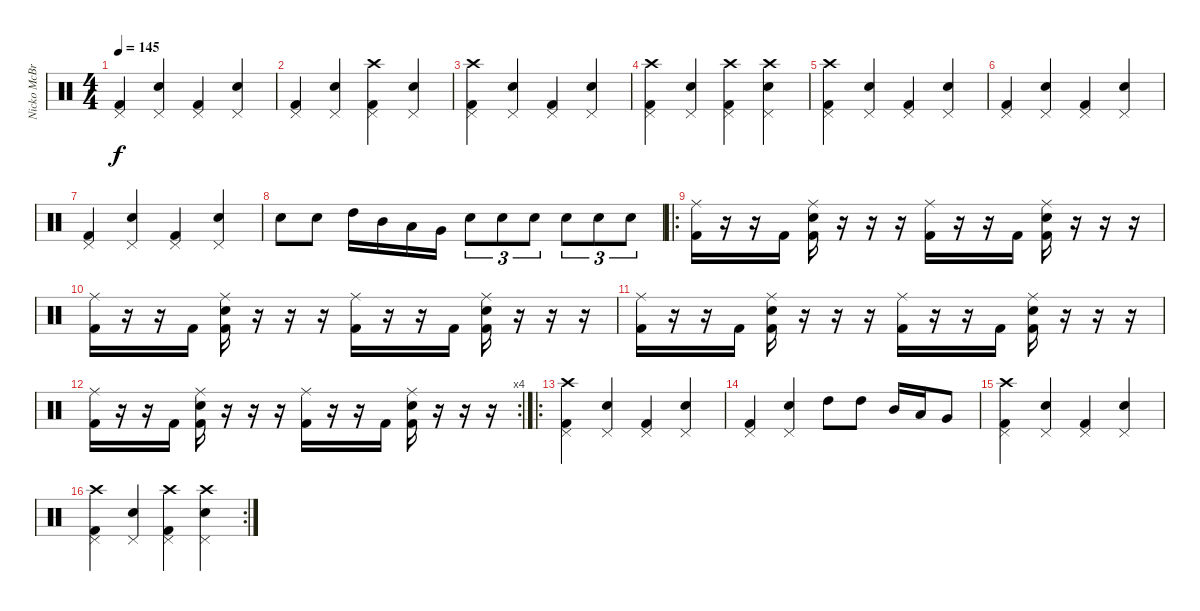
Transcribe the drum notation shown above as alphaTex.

\track ("Nicko McBrain" "Nicko McBr") {instrument percussion}
\staff {score}
\articulation defaults
\ts (4 4)
\tempo 145
\clef neutral
\ks c
("Pedal Hi-Hat (hit)" "Kick (hit) 2").4{dy f} ("Pedal Hi-Hat (hit)" "Snare (hit) 2").4 ("Pedal Hi-Hat (hit)" "Kick (hit) 2").4 ("Pedal Hi-Hat (hit)" "Snare (hit) 2").4 |
("Pedal Hi-Hat (hit)" "Kick (hit) 2").4 ("Pedal Hi-Hat (hit)" "Snare (hit) 2").4 ("Pedal Hi-Hat (hit)" "Kick (hit) 2" "Crash high (hit)").4 ("Pedal Hi-Hat (hit)" "Snare (hit) 2").4 |
("Pedal Hi-Hat (hit)" "Kick (hit) 2" "Crash high (hit)").4 ("Pedal Hi-Hat (hit)" "Snare (hit) 2").4 ("Pedal Hi-Hat (hit)" "Kick (hit) 2").4 ("Pedal Hi-Hat (hit)" "Snare (hit) 2").4 |
("Pedal Hi-Hat (hit)" "Kick (hit) 2" "Crash high (hit)").4 ("Pedal Hi-Hat (hit)" "Snare (hit) 2").4 ("Pedal Hi-Hat (hit)" "Kick (hit) 2" "Crash high (hit)").4 ("Pedal Hi-Hat (hit)" "Snare (hit) 2" "Crash high (hit)").4 |
("Pedal Hi-Hat (hit)" "Kick (hit) 2" "Crash high (hit)").4 ("Pedal Hi-Hat (hit)" "Snare (hit) 2").4 ("Pedal Hi-Hat (hit)" "Kick (hit) 2").4 ("Pedal Hi-Hat (hit)" "Snare (hit) 2").4 |
("Pedal Hi-Hat (hit)" "Kick (hit) 2").4 ("Pedal Hi-Hat (hit)" "Snare (hit) 2").4 ("Pedal Hi-Hat (hit)" "Kick (hit) 2").4 ("Pedal Hi-Hat (hit)" "Snare (hit) 2").4 |
("Pedal Hi-Hat (hit)" "Kick (hit) 2").4 ("Pedal Hi-Hat (hit)" "Snare (hit) 2").4 ("Pedal Hi-Hat (hit)" "Kick (hit) 2").4 ("Pedal Hi-Hat (hit)" "Snare (hit) 2").4 |
"Snare (hit) 2".8 "Snare (hit) 2".8 "High Tom (hit)".16 "Mid Tom (hit)".16 "Low Tom (hit)".16 "Very Low Tom (hit)".16 "Snare (hit) 2".8{tu (3 2)} "Snare (hit) 2".8{tu (3 2)} "Snare (hit) 2".8{tu (3 2)} "Snare (hit) 2".8{tu (3 2)} "Snare (hit) 2".8{tu (3 2)} "Snare (hit) 2".8{tu (3 2)} |
\ro
("Kick (hit) 2" "Ride (middle)").16 r.16 r.16 "Kick (hit) 2".16 ("Kick (hit) 2" "Snare (hit) 2" "Ride (middle)").16 r.16 r.16 r.16 ("Kick (hit) 2" "Ride (middle)").16 r.16 r.16 "Kick (hit) 2".16 ("Kick (hit) 2" "Snare (hit) 2" "Ride (middle)").16 r.16 r.16 r.16 |
("Kick (hit) 2" "Ride (middle)").16 r.16 r.16 "Kick (hit) 2".16 ("Kick (hit) 2" "Snare (hit) 2" "Ride (middle)").16 r.16 r.16 r.16 ("Kick (hit) 2" "Ride (middle)").16 r.16 r.16 "Kick (hit) 2".16 ("Kick (hit) 2" "Snare (hit) 2" "Ride (middle)").16 r.16 r.16 r.16 |
("Kick (hit) 2" "Ride (middle)").16 r.16 r.16 "Kick (hit) 2".16 ("Kick (hit) 2" "Snare (hit) 2" "Ride (middle)").16 r.16 r.16 r.16 ("Kick (hit) 2" "Ride (middle)").16 r.16 r.16 "Kick (hit) 2".16 ("Kick (hit) 2" "Snare (hit) 2" "Ride (middle)").16 r.16 r.16 r.16 |
\rc 4
("Kick (hit) 2" "Ride (middle)").16 r.16 r.16 "Kick (hit) 2".16 ("Kick (hit) 2" "Snare (hit) 2" "Ride (middle)").16 r.16 r.16 r.16 ("Kick (hit) 2" "Ride (middle)").16 r.16 r.16 "Kick (hit) 2".16 ("Kick (hit) 2" "Snare (hit) 2" "Ride (middle)").16 r.16 r.16 r.16 |
\ro
("Pedal Hi-Hat (hit)" "Kick (hit) 2" "Crash high (hit)").4 ("Pedal Hi-Hat (hit)" "Snare (hit) 2").4 ("Pedal Hi-Hat (hit)" "Kick (hit) 2").4 ("Pedal Hi-Hat (hit)" "Snare (hit) 2").4 |
("Pedal Hi-Hat (hit)" "Kick (hit) 2").4 ("Pedal Hi-Hat (hit)" "Snare (hit) 2").4 "High Tom (hit)".8 "High Tom (hit)".8 "Mid Tom (hit)".16 "Low Tom (hit)".16 "Very Low Tom (hit)".8 |
("Pedal Hi-Hat (hit)" "Kick (hit) 2" "Crash high (hit)").4 ("Pedal Hi-Hat (hit)" "Snare (hit) 2").4 ("Pedal Hi-Hat (hit)" "Kick (hit) 2").4 ("Pedal Hi-Hat (hit)" "Snare (hit) 2").4 |
\rc 2
("Pedal Hi-Hat (hit)" "Kick (hit) 2" "Crash high (hit)").4 ("Pedal Hi-Hat (hit)" "Snare (hit) 2").4 ("Pedal Hi-Hat (hit)" "Kick (hit) 2" "Crash high (hit)").4 ("Pedal Hi-Hat (hit)" "Snare (hit) 2" "Crash high (hit)").4
